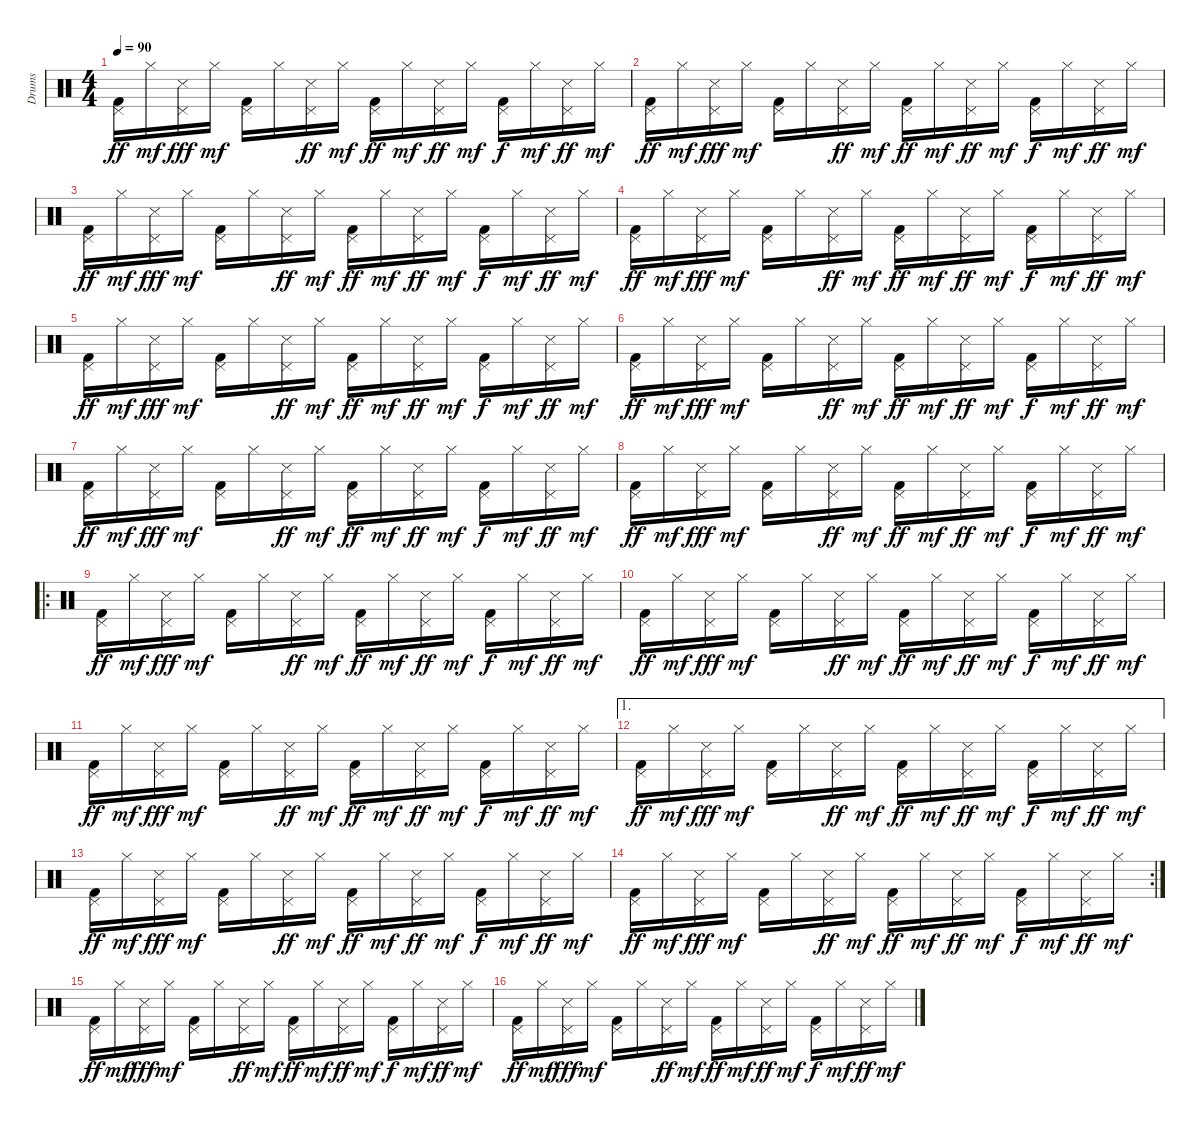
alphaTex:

\track ("Drums" "Drums") {instrument percussion}
\staff {score}
\articulation defaults
\ts (4 4)
\tempo 90
\clef neutral
\ks c
("Pedal Hi-Hat (hit)" "Kick (hit) 2").16{dy ff} "Hi-Hat (closed)".16{dy mf} ("Pedal Hi-Hat (hit)" "Snare (side stick) 3").16{dy fff} "Hi-Hat (closed)".16{dy mf} ("Pedal Hi-Hat (hit)" "Kick (hit) 2").16 "Hi-Hat (closed)".16 ("Pedal Hi-Hat (hit)" "Snare (side stick) 3").16{dy ff} "Hi-Hat (closed)".16{dy mf} ("Pedal Hi-Hat (hit)" "Kick (hit) 2").16{dy ff} "Hi-Hat (closed)".16{dy mf} ("Pedal Hi-Hat (hit)" "Snare (side stick) 3").16{dy ff} "Hi-Hat (closed)".16{dy mf} ("Pedal Hi-Hat (hit)" "Kick (hit) 2").16{dy f} "Hi-Hat (closed)".16{dy mf} ("Pedal Hi-Hat (hit)" "Snare (side stick) 3").16{dy ff} "Hi-Hat (closed)".16{dy mf} |
("Pedal Hi-Hat (hit)" "Kick (hit) 2").16{dy ff} "Hi-Hat (closed)".16{dy mf} ("Pedal Hi-Hat (hit)" "Snare (side stick) 3").16{dy fff} "Hi-Hat (closed)".16{dy mf} ("Pedal Hi-Hat (hit)" "Kick (hit) 2").16 "Hi-Hat (closed)".16 ("Pedal Hi-Hat (hit)" "Snare (side stick) 3").16{dy ff} "Hi-Hat (closed)".16{dy mf} ("Pedal Hi-Hat (hit)" "Kick (hit) 2").16{dy ff} "Hi-Hat (closed)".16{dy mf} ("Pedal Hi-Hat (hit)" "Snare (side stick) 3").16{dy ff} "Hi-Hat (closed)".16{dy mf} ("Pedal Hi-Hat (hit)" "Kick (hit) 2").16{dy f} "Hi-Hat (closed)".16{dy mf} ("Pedal Hi-Hat (hit)" "Snare (side stick) 3").16{dy ff} "Hi-Hat (closed)".16{dy mf} |
("Pedal Hi-Hat (hit)" "Kick (hit) 2").16{dy ff} "Hi-Hat (closed)".16{dy mf} ("Pedal Hi-Hat (hit)" "Snare (side stick) 3").16{dy fff} "Hi-Hat (closed)".16{dy mf} ("Pedal Hi-Hat (hit)" "Kick (hit) 2").16 "Hi-Hat (closed)".16 ("Pedal Hi-Hat (hit)" "Snare (side stick) 3").16{dy ff} "Hi-Hat (closed)".16{dy mf} ("Pedal Hi-Hat (hit)" "Kick (hit) 2").16{dy ff} "Hi-Hat (closed)".16{dy mf} ("Pedal Hi-Hat (hit)" "Snare (side stick) 3").16{dy ff} "Hi-Hat (closed)".16{dy mf} ("Pedal Hi-Hat (hit)" "Kick (hit) 2").16{dy f} "Hi-Hat (closed)".16{dy mf} ("Pedal Hi-Hat (hit)" "Snare (side stick) 3").16{dy ff} "Hi-Hat (closed)".16{dy mf} |
("Pedal Hi-Hat (hit)" "Kick (hit) 2").16{dy ff} "Hi-Hat (closed)".16{dy mf} ("Pedal Hi-Hat (hit)" "Snare (side stick) 3").16{dy fff} "Hi-Hat (closed)".16{dy mf} ("Pedal Hi-Hat (hit)" "Kick (hit) 2").16 "Hi-Hat (closed)".16 ("Pedal Hi-Hat (hit)" "Snare (side stick) 3").16{dy ff} "Hi-Hat (closed)".16{dy mf} ("Pedal Hi-Hat (hit)" "Kick (hit) 2").16{dy ff} "Hi-Hat (closed)".16{dy mf} ("Pedal Hi-Hat (hit)" "Snare (side stick) 3").16{dy ff} "Hi-Hat (closed)".16{dy mf} ("Pedal Hi-Hat (hit)" "Kick (hit) 2").16{dy f} "Hi-Hat (closed)".16{dy mf} ("Pedal Hi-Hat (hit)" "Snare (side stick) 3").16{dy ff} "Hi-Hat (closed)".16{dy mf} |
("Pedal Hi-Hat (hit)" "Kick (hit) 2").16{dy ff} "Hi-Hat (closed)".16{dy mf} ("Pedal Hi-Hat (hit)" "Snare (side stick) 3").16{dy fff} "Hi-Hat (closed)".16{dy mf} ("Pedal Hi-Hat (hit)" "Kick (hit) 2").16 "Hi-Hat (closed)".16 ("Pedal Hi-Hat (hit)" "Snare (side stick) 3").16{dy ff} "Hi-Hat (closed)".16{dy mf} ("Pedal Hi-Hat (hit)" "Kick (hit) 2").16{dy ff} "Hi-Hat (closed)".16{dy mf} ("Pedal Hi-Hat (hit)" "Snare (side stick) 3").16{dy ff} "Hi-Hat (closed)".16{dy mf} ("Pedal Hi-Hat (hit)" "Kick (hit) 2").16{dy f} "Hi-Hat (closed)".16{dy mf} ("Pedal Hi-Hat (hit)" "Snare (side stick) 3").16{dy ff} "Hi-Hat (closed)".16{dy mf} |
("Pedal Hi-Hat (hit)" "Kick (hit) 2").16{dy ff} "Hi-Hat (closed)".16{dy mf} ("Pedal Hi-Hat (hit)" "Snare (side stick) 3").16{dy fff} "Hi-Hat (closed)".16{dy mf} ("Pedal Hi-Hat (hit)" "Kick (hit) 2").16 "Hi-Hat (closed)".16 ("Pedal Hi-Hat (hit)" "Snare (side stick) 3").16{dy ff} "Hi-Hat (closed)".16{dy mf} ("Pedal Hi-Hat (hit)" "Kick (hit) 2").16{dy ff} "Hi-Hat (closed)".16{dy mf} ("Pedal Hi-Hat (hit)" "Snare (side stick) 3").16{dy ff} "Hi-Hat (closed)".16{dy mf} ("Pedal Hi-Hat (hit)" "Kick (hit) 2").16{dy f} "Hi-Hat (closed)".16{dy mf} ("Pedal Hi-Hat (hit)" "Snare (side stick) 3").16{dy ff} "Hi-Hat (closed)".16{dy mf} |
("Pedal Hi-Hat (hit)" "Kick (hit) 2").16{dy ff} "Hi-Hat (closed)".16{dy mf} ("Pedal Hi-Hat (hit)" "Snare (side stick) 3").16{dy fff} "Hi-Hat (closed)".16{dy mf} ("Pedal Hi-Hat (hit)" "Kick (hit) 2").16 "Hi-Hat (closed)".16 ("Pedal Hi-Hat (hit)" "Snare (side stick) 3").16{dy ff} "Hi-Hat (closed)".16{dy mf} ("Pedal Hi-Hat (hit)" "Kick (hit) 2").16{dy ff} "Hi-Hat (closed)".16{dy mf} ("Pedal Hi-Hat (hit)" "Snare (side stick) 3").16{dy ff} "Hi-Hat (closed)".16{dy mf} ("Pedal Hi-Hat (hit)" "Kick (hit) 2").16{dy f} "Hi-Hat (closed)".16{dy mf} ("Pedal Hi-Hat (hit)" "Snare (side stick) 3").16{dy ff} "Hi-Hat (closed)".16{dy mf} |
("Pedal Hi-Hat (hit)" "Kick (hit) 2").16{dy ff} "Hi-Hat (closed)".16{dy mf} ("Pedal Hi-Hat (hit)" "Snare (side stick) 3").16{dy fff} "Hi-Hat (closed)".16{dy mf} ("Pedal Hi-Hat (hit)" "Kick (hit) 2").16 "Hi-Hat (closed)".16 ("Pedal Hi-Hat (hit)" "Snare (side stick) 3").16{dy ff} "Hi-Hat (closed)".16{dy mf} ("Pedal Hi-Hat (hit)" "Kick (hit) 2").16{dy ff} "Hi-Hat (closed)".16{dy mf} ("Pedal Hi-Hat (hit)" "Snare (side stick) 3").16{dy ff} "Hi-Hat (closed)".16{dy mf} ("Pedal Hi-Hat (hit)" "Kick (hit) 2").16{dy f} "Hi-Hat (closed)".16{dy mf} ("Pedal Hi-Hat (hit)" "Snare (side stick) 3").16{dy ff} "Hi-Hat (closed)".16{dy mf} |
\ro
("Pedal Hi-Hat (hit)" "Kick (hit) 2").16{dy ff} "Hi-Hat (closed)".16{dy mf} ("Pedal Hi-Hat (hit)" "Snare (side stick) 3").16{dy fff} "Hi-Hat (closed)".16{dy mf} ("Pedal Hi-Hat (hit)" "Kick (hit) 2").16 "Hi-Hat (closed)".16 ("Pedal Hi-Hat (hit)" "Snare (side stick) 3").16{dy ff} "Hi-Hat (closed)".16{dy mf} ("Pedal Hi-Hat (hit)" "Kick (hit) 2").16{dy ff} "Hi-Hat (closed)".16{dy mf} ("Pedal Hi-Hat (hit)" "Snare (side stick) 3").16{dy ff} "Hi-Hat (closed)".16{dy mf} ("Pedal Hi-Hat (hit)" "Kick (hit) 2").16{dy f} "Hi-Hat (closed)".16{dy mf} ("Pedal Hi-Hat (hit)" "Snare (side stick) 3").16{dy ff} "Hi-Hat (closed)".16{dy mf} |
("Pedal Hi-Hat (hit)" "Kick (hit) 2").16{dy ff} "Hi-Hat (closed)".16{dy mf} ("Pedal Hi-Hat (hit)" "Snare (side stick) 3").16{dy fff} "Hi-Hat (closed)".16{dy mf} ("Pedal Hi-Hat (hit)" "Kick (hit) 2").16 "Hi-Hat (closed)".16 ("Pedal Hi-Hat (hit)" "Snare (side stick) 3").16{dy ff} "Hi-Hat (closed)".16{dy mf} ("Pedal Hi-Hat (hit)" "Kick (hit) 2").16{dy ff} "Hi-Hat (closed)".16{dy mf} ("Pedal Hi-Hat (hit)" "Snare (side stick) 3").16{dy ff} "Hi-Hat (closed)".16{dy mf} ("Pedal Hi-Hat (hit)" "Kick (hit) 2").16{dy f} "Hi-Hat (closed)".16{dy mf} ("Pedal Hi-Hat (hit)" "Snare (side stick) 3").16{dy ff} "Hi-Hat (closed)".16{dy mf} |
("Pedal Hi-Hat (hit)" "Kick (hit) 2").16{dy ff} "Hi-Hat (closed)".16{dy mf} ("Pedal Hi-Hat (hit)" "Snare (side stick) 3").16{dy fff} "Hi-Hat (closed)".16{dy mf} ("Pedal Hi-Hat (hit)" "Kick (hit) 2").16 "Hi-Hat (closed)".16 ("Pedal Hi-Hat (hit)" "Snare (side stick) 3").16{dy ff} "Hi-Hat (closed)".16{dy mf} ("Pedal Hi-Hat (hit)" "Kick (hit) 2").16{dy ff} "Hi-Hat (closed)".16{dy mf} ("Pedal Hi-Hat (hit)" "Snare (side stick) 3").16{dy ff} "Hi-Hat (closed)".16{dy mf} ("Pedal Hi-Hat (hit)" "Kick (hit) 2").16{dy f} "Hi-Hat (closed)".16{dy mf} ("Pedal Hi-Hat (hit)" "Snare (side stick) 3").16{dy ff} "Hi-Hat (closed)".16{dy mf} |
\ae 1
("Pedal Hi-Hat (hit)" "Kick (hit) 2").16{dy ff} "Hi-Hat (closed)".16{dy mf} ("Pedal Hi-Hat (hit)" "Snare (side stick) 3").16{dy fff} "Hi-Hat (closed)".16{dy mf} ("Pedal Hi-Hat (hit)" "Kick (hit) 2").16 "Hi-Hat (closed)".16 ("Pedal Hi-Hat (hit)" "Snare (side stick) 3").16{dy ff} "Hi-Hat (closed)".16{dy mf} ("Pedal Hi-Hat (hit)" "Kick (hit) 2").16{dy ff} "Hi-Hat (closed)".16{dy mf} ("Pedal Hi-Hat (hit)" "Snare (side stick) 3").16{dy ff} "Hi-Hat (closed)".16{dy mf} ("Pedal Hi-Hat (hit)" "Kick (hit) 2").16{dy f} "Hi-Hat (closed)".16{dy mf} ("Pedal Hi-Hat (hit)" "Snare (side stick) 3").16{dy ff} "Hi-Hat (closed)".16{dy mf} |
("Pedal Hi-Hat (hit)" "Kick (hit) 2").16{dy ff} "Hi-Hat (closed)".16{dy mf} ("Pedal Hi-Hat (hit)" "Snare (side stick) 3").16{dy fff} "Hi-Hat (closed)".16{dy mf} ("Pedal Hi-Hat (hit)" "Kick (hit) 2").16 "Hi-Hat (closed)".16 ("Pedal Hi-Hat (hit)" "Snare (side stick) 3").16{dy ff} "Hi-Hat (closed)".16{dy mf} ("Pedal Hi-Hat (hit)" "Kick (hit) 2").16{dy ff} "Hi-Hat (closed)".16{dy mf} ("Pedal Hi-Hat (hit)" "Snare (side stick) 3").16{dy ff} "Hi-Hat (closed)".16{dy mf} ("Pedal Hi-Hat (hit)" "Kick (hit) 2").16{dy f} "Hi-Hat (closed)".16{dy mf} ("Pedal Hi-Hat (hit)" "Snare (side stick) 3").16{dy ff} "Hi-Hat (closed)".16{dy mf} |
\rc 2
("Pedal Hi-Hat (hit)" "Kick (hit) 2").16{dy ff} "Hi-Hat (closed)".16{dy mf} ("Pedal Hi-Hat (hit)" "Snare (side stick) 3").16{dy fff} "Hi-Hat (closed)".16{dy mf} ("Pedal Hi-Hat (hit)" "Kick (hit) 2").16 "Hi-Hat (closed)".16 ("Pedal Hi-Hat (hit)" "Snare (side stick) 3").16{dy ff} "Hi-Hat (closed)".16{dy mf} ("Pedal Hi-Hat (hit)" "Kick (hit) 2").16{dy ff} "Hi-Hat (closed)".16{dy mf} ("Pedal Hi-Hat (hit)" "Snare (side stick) 3").16{dy ff} "Hi-Hat (closed)".16{dy mf} ("Pedal Hi-Hat (hit)" "Kick (hit) 2").16{dy f} "Hi-Hat (closed)".16{dy mf} ("Pedal Hi-Hat (hit)" "Snare (side stick) 3").16{dy ff} "Hi-Hat (closed)".16{dy mf} |
("Pedal Hi-Hat (hit)" "Kick (hit) 2").16{dy ff} "Hi-Hat (closed)".16{dy mf} ("Pedal Hi-Hat (hit)" "Snare (side stick) 3").16{dy fff} "Hi-Hat (closed)".16{dy mf} ("Pedal Hi-Hat (hit)" "Kick (hit) 2").16 "Hi-Hat (closed)".16 ("Pedal Hi-Hat (hit)" "Snare (side stick) 3").16{dy ff} "Hi-Hat (closed)".16{dy mf} ("Pedal Hi-Hat (hit)" "Kick (hit) 2").16{dy ff} "Hi-Hat (closed)".16{dy mf} ("Pedal Hi-Hat (hit)" "Snare (side stick) 3").16{dy ff} "Hi-Hat (closed)".16{dy mf} ("Pedal Hi-Hat (hit)" "Kick (hit) 2").16{dy f} "Hi-Hat (closed)".16{dy mf} ("Pedal Hi-Hat (hit)" "Snare (side stick) 3").16{dy ff} "Hi-Hat (closed)".16{dy mf} |
("Pedal Hi-Hat (hit)" "Kick (hit) 2").16{dy ff} "Hi-Hat (closed)".16{dy mf} ("Pedal Hi-Hat (hit)" "Snare (side stick) 3").16{dy fff} "Hi-Hat (closed)".16{dy mf} ("Pedal Hi-Hat (hit)" "Kick (hit) 2").16 "Hi-Hat (closed)".16 ("Pedal Hi-Hat (hit)" "Snare (side stick) 3").16{dy ff} "Hi-Hat (closed)".16{dy mf} ("Pedal Hi-Hat (hit)" "Kick (hit) 2").16{dy ff} "Hi-Hat (closed)".16{dy mf} ("Pedal Hi-Hat (hit)" "Snare (side stick) 3").16{dy ff} "Hi-Hat (closed)".16{dy mf} ("Pedal Hi-Hat (hit)" "Kick (hit) 2").16{dy f} "Hi-Hat (closed)".16{dy mf} ("Pedal Hi-Hat (hit)" "Snare (side stick) 3").16{dy ff} "Hi-Hat (closed)".16{dy mf}
